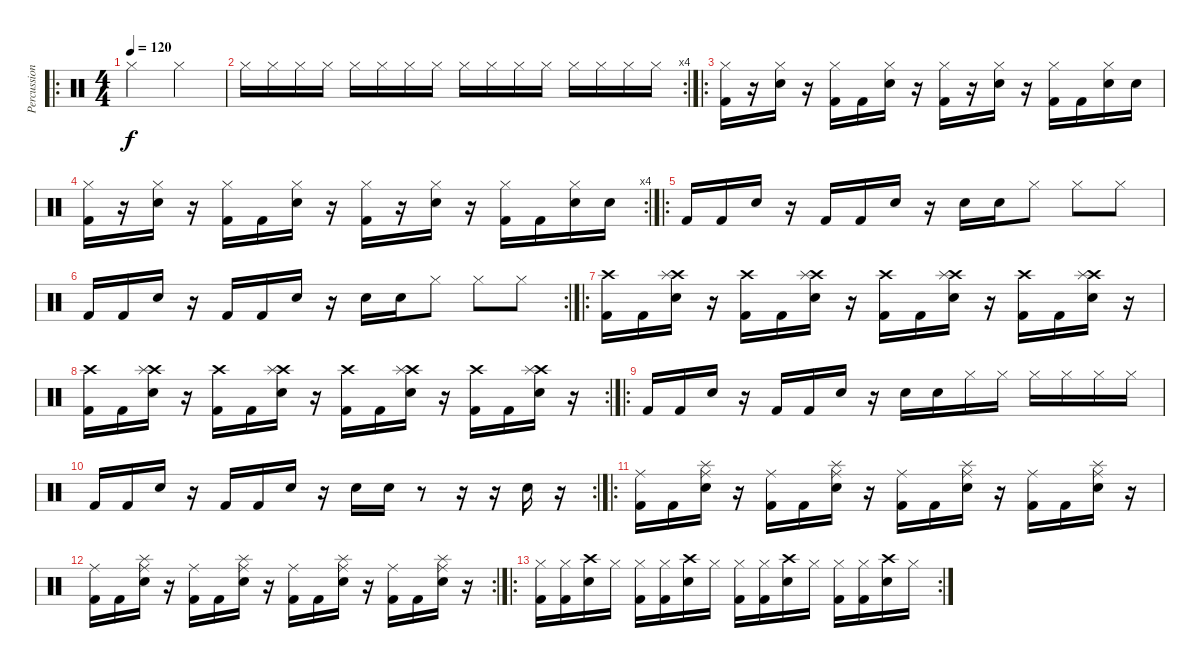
\track ("Percussion" "Percussion") {instrument percussion}
\staff {score}
\articulation defaults
\ro
\ts (4 4)
\tempo 120
\clef neutral
\ks c "Hi-Hat (closed)".2{dy f} "Hi-Hat (closed)".2
|
\rc 4 "Hi-Hat (closed)".16 "Hi-Hat (closed)".16 "Hi-Hat (closed)".16 "Hi-Hat (closed)".16 "Hi-Hat (closed)".16 "Hi-Hat (closed)".16 "Hi-Hat (closed)".16 "Hi-Hat (closed)".16 "Hi-Hat (closed)".16 "Hi-Hat (closed)".16 "Hi-Hat (closed)".16 "Hi-Hat (closed)".16 "Hi-Hat (closed)".16 "Hi-Hat (closed)".16 "Hi-Hat (closed)".16 "Hi-Hat (closed)".16
|
\ro
("Hi-Hat (closed)" "Kick (hit) 2").16 r.16 ("Hi-Hat (closed)" "Electric Snare (hit)").16 r.16 ("Hi-Hat (closed)" "Kick (hit) 2").16 "Kick (hit) 2".16 ("Hi-Hat (closed)" "Electric Snare (hit)").16 r.16 ("Hi-Hat (closed)" "Kick (hit) 2").16 r.16 ("Hi-Hat (closed)" "Electric Snare (hit)").16 r.16 ("Hi-Hat (closed)" "Kick (hit) 2").16 "Kick (hit) 2".16 ("Hi-Hat (closed)" "Electric Snare (hit)").16 "Electric Snare (hit)".16 |
\rc 4
("Hi-Hat (closed)" "Kick (hit) 2").16 r.16 ("Hi-Hat (closed)" "Electric Snare (hit)").16 r.16 ("Hi-Hat (closed)" "Kick (hit) 2").16 "Kick (hit) 2".16 ("Hi-Hat (closed)" "Electric Snare (hit)").16 r.16 ("Hi-Hat (closed)" "Kick (hit) 2").16 r.16 ("Hi-Hat (closed)" "Electric Snare (hit)").16 r.16 ("Hi-Hat (closed)" "Kick (hit) 2").16 "Kick (hit) 2".16 ("Hi-Hat (closed)" "Electric Snare (hit)").16 "Electric Snare (hit)".16 |
\ro "Kick (hit) 2".16 "Kick (hit) 2".16 "Electric Snare (hit)".16
r.16 "Kick (hit) 2".16 "Kick (hit) 2".16 "Electric Snare (hit)".16 r.16 "Electric Snare (hit)".16 "Electric Snare (hit)".16 "Hi-Hat (closed)".8 "Hi-Hat (closed)".8 "Hi-Hat (closed)".8 |
\rc 2 "Kick (hit) 2".16 "Kick (hit) 2".16 "Electric Snare (hit)".16
r.16 "Kick (hit) 2".16 "Kick (hit) 2".16 "Electric Snare (hit)".16 r.16 "Electric Snare (hit)".16 "Electric Snare (hit)".16 "Hi-Hat (closed)".8 "Hi-Hat (closed)".8 "Hi-Hat (closed)".8 |
\ro
("Crash high (hit)" "Kick (hit) 2").16 "Kick (hit) 2".16 ("Crash high (hit)" "Electric Snare (hit)" "Splash (hit)").16 r.16 ("Crash high (hit)" "Kick (hit) 2").16 "Kick (hit) 2".16 ("Crash high (hit)" "Electric Snare (hit)" "Splash (hit)").16 r.16 ("Crash high (hit)" "Kick (hit) 2").16 "Kick (hit) 2".16 ("Crash high (hit)" "Electric Snare (hit)" "Splash (hit)").16 r.16 ("Crash high (hit)" "Kick (hit) 2").16 "Kick (hit) 2".16 ("Crash high (hit)" "Electric Snare (hit)" "Splash (hit)").16 r.16 |
\rc 2
("Crash high (hit)" "Kick (hit) 2").16 "Kick (hit) 2".16 ("Crash high (hit)" "Electric Snare (hit)" "Splash (hit)").16 r.16 ("Crash high (hit)" "Kick (hit) 2").16 "Kick (hit) 2".16 ("Crash high (hit)" "Electric Snare (hit)" "Splash (hit)").16 r.16 ("Crash high (hit)" "Kick (hit) 2").16 "Kick (hit) 2".16 ("Crash high (hit)" "Electric Snare (hit)" "Splash (hit)").16 r.16 ("Crash high (hit)" "Kick (hit) 2").16 "Kick (hit) 2".16 ("Crash high (hit)" "Electric Snare (hit)" "Splash (hit)").16 r.16 |
\ro "Kick (hit) 2".16 "Kick (hit) 2".16 "Electric Snare (hit)".16
r.16 "Kick (hit) 2".16 "Kick (hit) 2".16 "Electric Snare (hit)".16 r.16 "Electric Snare (hit)".16 "Electric Snare (hit)".16 "Hi-Hat (closed)".16 "Hi-Hat (closed)".16 "Hi-Hat (closed)".16 "Hi-Hat (closed)".16 "Hi-Hat (closed)".16 "Hi-Hat (closed)".16 |
\rc 2 "Kick (hit) 2".16 "Kick (hit) 2".16 "Electric Snare (hit)".16
r.16 "Kick (hit) 2".16 "Kick (hit) 2".16 "Electric Snare (hit)".16 r.16 "Electric Snare (hit)".16 "Electric Snare (hit)".16 r.8 r.16 r.16 "Electric Snare (hit)".16 r.16 |
\ro
("Ride (middle)" "Kick (hit) 2").16 "Kick (hit) 2".16 ("Ride (middle)" "Electric Snare (hit)" "Splash (hit)").16 r.16 ("Ride (middle)" "Kick (hit) 2").16 "Kick (hit) 2".16 ("Ride (middle)" "Electric Snare (hit)" "Splash (hit)").16 r.16 ("Ride (middle)" "Kick (hit) 2").16 "Kick (hit) 2".16 ("Ride (middle)" "Electric Snare (hit)" "Splash (hit)").16 r.16 ("Ride (middle)" "Kick (hit) 2").16 "Kick (hit) 2".16 ("Ride (middle)" "Electric Snare (hit)" "Splash (hit)").16 r.16 |
\rc 2
("Ride (middle)" "Kick (hit) 2").16 "Kick (hit) 2".16 ("Ride (middle)" "Electric Snare (hit)" "Splash (hit)").16 r.16 ("Ride (middle)" "Kick (hit) 2").16 "Kick (hit) 2".16 ("Ride (middle)" "Electric Snare (hit)" "Splash (hit)").16 r.16 ("Ride (middle)" "Kick (hit) 2").16 "Kick (hit) 2".16 ("Ride (middle)" "Electric Snare (hit)" "Splash (hit)").16 r.16 ("Ride (middle)" "Kick (hit) 2").16 "Kick (hit) 2".16 ("Ride (middle)" "Electric Snare (hit)" "Splash (hit)").16 r.16 |
\ro
\rc 2
("Hi-Hat (closed)" "Kick (hit) 2").16 ("Hi-Hat (closed)" "Kick (hit) 2").16 ("Crash high (hit)" "Electric Snare (hit)").16 "Hi-Hat (closed)".16 ("Hi-Hat (closed)" "Kick (hit) 2").16 ("Hi-Hat (closed)" "Kick (hit) 2").16 ("Crash high (hit)" "Electric Snare (hit)").16 "Hi-Hat (closed)".16 ("Hi-Hat (closed)" "Kick (hit) 2").16 ("Hi-Hat (closed)" "Kick (hit) 2").16 ("Crash high (hit)" "Electric Snare (hit)").16 "Hi-Hat (closed)".16 ("Hi-Hat (closed)" "Kick (hit) 2").16 ("Hi-Hat (closed)" "Kick (hit) 2").16 ("Crash high (hit)" "Electric Snare (hit)").16 "Hi-Hat (closed)".16
